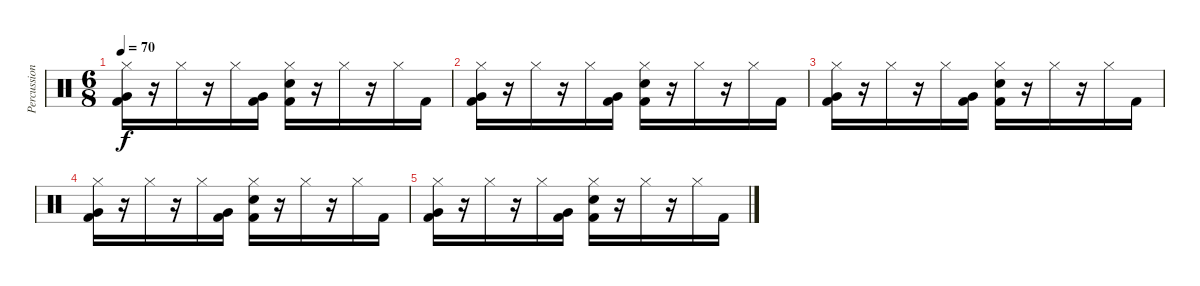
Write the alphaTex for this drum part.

\track ("Percussion" "Percussion") {instrument percussion}
\staff {score}
\articulation defaults
\ts (6 8)
\tempo 70
\clef neutral
\ks c
("Very Low Tom (hit)" "Hi-Hat (closed)" "Kick (hit) 2").16{dy f} r.16 "Hi-Hat (closed)".16 r.16 "Hi-Hat (closed)".16 ("Kick (hit) 2" "Very Low Tom (hit)").16 ("Hi-Hat (closed)" "Electric Snare (hit)" "Kick (hit) 2").16 r.16 "Hi-Hat (closed)".16 r.16 "Hi-Hat (closed)".16 "Kick (hit) 2".16 |
("Very Low Tom (hit)" "Hi-Hat (closed)" "Kick (hit) 2").16 r.16 "Hi-Hat (closed)".16 r.16 "Hi-Hat (closed)".16 ("Kick (hit) 2" "Very Low Tom (hit)").16 ("Hi-Hat (closed)" "Electric Snare (hit)" "Kick (hit) 2").16 r.16 "Hi-Hat (closed)".16 r.16 "Hi-Hat (closed)".16 "Kick (hit) 2".16 |
("Very Low Tom (hit)" "Hi-Hat (closed)" "Kick (hit) 2").16 r.16 "Hi-Hat (closed)".16 r.16 "Hi-Hat (closed)".16 ("Kick (hit) 2" "Very Low Tom (hit)").16 ("Hi-Hat (closed)" "Electric Snare (hit)" "Kick (hit) 2").16 r.16 "Hi-Hat (closed)".16 r.16 "Hi-Hat (closed)".16 "Kick (hit) 2".16 |
("Very Low Tom (hit)" "Hi-Hat (closed)" "Kick (hit) 2").16 r.16 "Hi-Hat (closed)".16 r.16 "Hi-Hat (closed)".16 ("Kick (hit) 2" "Very Low Tom (hit)").16 ("Hi-Hat (closed)" "Electric Snare (hit)" "Kick (hit) 2").16 r.16 "Hi-Hat (closed)".16 r.16 "Hi-Hat (closed)".16 "Kick (hit) 2".16 |
("Very Low Tom (hit)" "Hi-Hat (closed)" "Kick (hit) 2").16 r.16 "Hi-Hat (closed)".16 r.16 "Hi-Hat (closed)".16 ("Kick (hit) 2" "Very Low Tom (hit)").16 ("Hi-Hat (closed)" "Electric Snare (hit)" "Kick (hit) 2").16 r.16 "Hi-Hat (closed)".16 r.16 "Hi-Hat (closed)".16 "Kick (hit) 2".16
